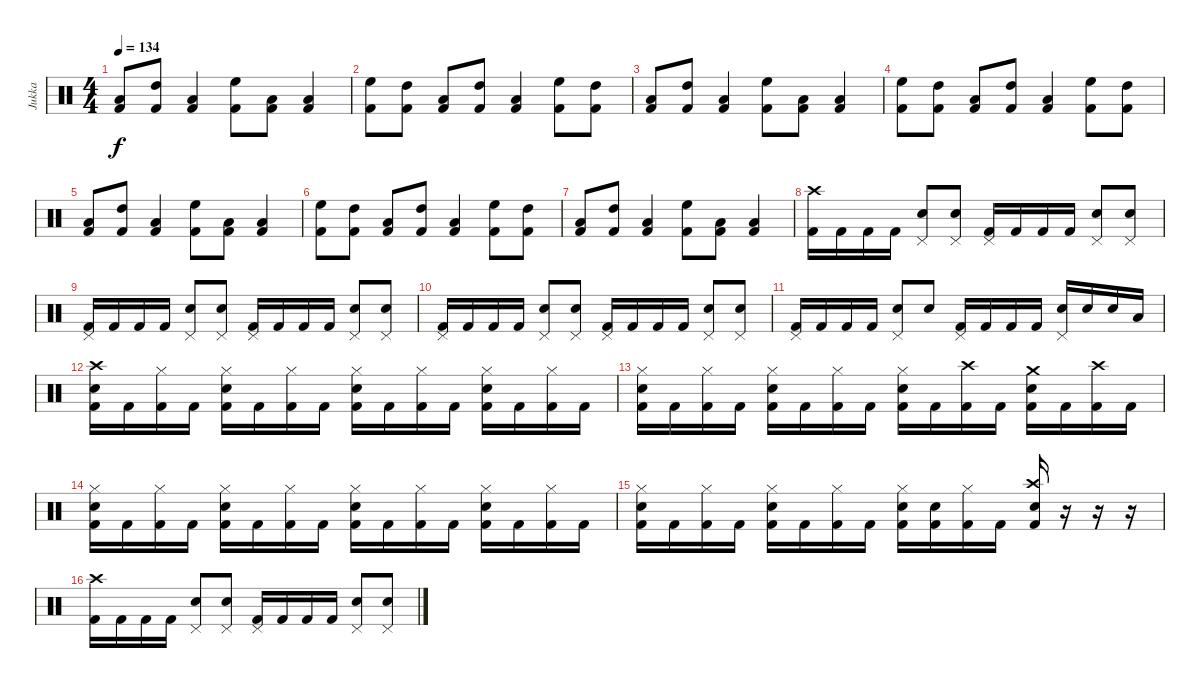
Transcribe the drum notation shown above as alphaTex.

\track ("Jukka" "Jukka") {instrument percussion}
\staff {score}
\articulation defaults
\ts (4 4)
\tempo 134
\clef neutral
\ks c
("Low Tom (hit)" "Kick (hit) 2").8{dy f} ("High Tom (hit)" "Kick (hit) 2").8 ("Low Tom (hit)" "Kick (hit) 2").4 ("High Floor Tom (hit)" "Kick (hit) 2").8 ("Low Tom (hit)" "Kick (hit) 2").8 ("Low Tom (hit)" "Kick (hit) 2").4 |
("High Floor Tom (hit)" "Kick (hit) 2").8 ("High Tom (hit)" "Kick (hit) 2").8 ("Low Tom (hit)" "Kick (hit) 2").8 ("High Tom (hit)" "Kick (hit) 2").8 ("Low Tom (hit)" "Kick (hit) 2").4 ("High Floor Tom (hit)" "Kick (hit) 2").8 ("High Tom (hit)" "Kick (hit) 2").8 |
("Low Tom (hit)" "Kick (hit) 2").8 ("High Tom (hit)" "Kick (hit) 2").8 ("Low Tom (hit)" "Kick (hit) 2").4 ("High Floor Tom (hit)" "Kick (hit) 2").8 ("Low Tom (hit)" "Kick (hit) 2").8 ("Low Tom (hit)" "Kick (hit) 2").4 |
("High Floor Tom (hit)" "Kick (hit) 2").8 ("High Tom (hit)" "Kick (hit) 2").8 ("Low Tom (hit)" "Kick (hit) 2").8 ("High Tom (hit)" "Kick (hit) 2").8 ("Low Tom (hit)" "Kick (hit) 2").4 ("High Floor Tom (hit)" "Kick (hit) 2").8 ("High Tom (hit)" "Kick (hit) 2").8 |
("Low Tom (hit)" "Kick (hit) 2").8 ("High Tom (hit)" "Kick (hit) 2").8 ("Low Tom (hit)" "Kick (hit) 2").4 ("High Floor Tom (hit)" "Kick (hit) 2").8 ("Low Tom (hit)" "Kick (hit) 2").8 ("Low Tom (hit)" "Kick (hit) 2").4 |
("High Floor Tom (hit)" "Kick (hit) 2").8 ("High Tom (hit)" "Kick (hit) 2").8 ("Low Tom (hit)" "Kick (hit) 2").8 ("High Tom (hit)" "Kick (hit) 2").8 ("Low Tom (hit)" "Kick (hit) 2").4 ("High Floor Tom (hit)" "Kick (hit) 2").8 ("High Tom (hit)" "Kick (hit) 2").8 |
("Low Tom (hit)" "Kick (hit) 2").8 ("High Tom (hit)" "Kick (hit) 2").8 ("Low Tom (hit)" "Kick (hit) 2").4 ("High Floor Tom (hit)" "Kick (hit) 2").8 ("Low Tom (hit)" "Kick (hit) 2").8 ("Low Tom (hit)" "Kick (hit) 2").4 |
("Crash high (hit)" "Kick (hit) 2").16 "Kick (hit) 2".16 "Kick (hit) 2".16 "Kick (hit) 2".16 ("Pedal Hi-Hat (hit)" "Electric Snare (hit)").8 ("Pedal Hi-Hat (hit)" "Electric Snare (hit)").8 ("Pedal Hi-Hat (hit)" "Kick (hit) 2").16 "Kick (hit) 2".16 "Kick (hit) 2".16 "Kick (hit) 2".16 ("Pedal Hi-Hat (hit)" "Electric Snare (hit)").8 ("Pedal Hi-Hat (hit)" "Electric Snare (hit)").8 |
("Pedal Hi-Hat (hit)" "Kick (hit) 2").16 "Kick (hit) 2".16 "Kick (hit) 2".16 "Kick (hit) 2".16 ("Pedal Hi-Hat (hit)" "Electric Snare (hit)").8 ("Pedal Hi-Hat (hit)" "Electric Snare (hit)").8 ("Pedal Hi-Hat (hit)" "Kick (hit) 2").16 "Kick (hit) 2".16 "Kick (hit) 2".16 "Kick (hit) 2".16 ("Pedal Hi-Hat (hit)" "Electric Snare (hit)").8 ("Pedal Hi-Hat (hit)" "Electric Snare (hit)").8 |
("Pedal Hi-Hat (hit)" "Kick (hit) 2").16 "Kick (hit) 2".16 "Kick (hit) 2".16 "Kick (hit) 2".16 ("Pedal Hi-Hat (hit)" "Electric Snare (hit)").8 ("Pedal Hi-Hat (hit)" "Electric Snare (hit)").8 ("Pedal Hi-Hat (hit)" "Kick (hit) 2").16 "Kick (hit) 2".16 "Kick (hit) 2".16 "Kick (hit) 2".16 ("Pedal Hi-Hat (hit)" "Electric Snare (hit)").8 ("Pedal Hi-Hat (hit)" "Electric Snare (hit)").8 |
("Pedal Hi-Hat (hit)" "Kick (hit) 2").16 "Kick (hit) 2".16 "Kick (hit) 2".16 "Kick (hit) 2".16 ("Pedal Hi-Hat (hit)" "Electric Snare (hit)").8 "Electric Snare (hit)".8 ("Pedal Hi-Hat (hit)" "Kick (hit) 2").16 "Kick (hit) 2".16 "Kick (hit) 2".16 "Kick (hit) 2".16 ("Pedal Hi-Hat (hit)" "Electric Snare (hit)").16 "Electric Snare (hit)".16 "Electric Snare (hit)".16 "Low Tom (hit)".16 |
("Crash high (hit)" "Electric Snare (hit)" "Kick (hit) 2").16 "Kick (hit) 2".16 ("Hi-Hat (closed)" "Kick (hit) 2").16 "Kick (hit) 2".16 ("Hi-Hat (closed)" "Electric Snare (hit)" "Kick (hit) 2").16 "Kick (hit) 2".16 ("Hi-Hat (closed)" "Kick (hit) 2").16 "Kick (hit) 2".16 ("Hi-Hat (closed)" "Electric Snare (hit)" "Kick (hit) 2").16 "Kick (hit) 2".16 ("Hi-Hat (closed)" "Kick (hit) 2").16 "Kick (hit) 2".16 ("Hi-Hat (closed)" "Electric Snare (hit)" "Kick (hit) 2").16 "Kick (hit) 2".16 ("Hi-Hat (closed)" "Kick (hit) 2").16 "Kick (hit) 2".16 |
("Hi-Hat (closed)" "Electric Snare (hit)" "Kick (hit) 2").16 "Kick (hit) 2".16 ("Hi-Hat (closed)" "Kick (hit) 2").16 "Kick (hit) 2".16 ("Hi-Hat (closed)" "Electric Snare (hit)" "Kick (hit) 2").16 "Kick (hit) 2".16 ("Hi-Hat (closed)" "Kick (hit) 2").16 "Kick (hit) 2".16 ("Hi-Hat (closed)" "Electric Snare (hit)" "Kick (hit) 2").16 "Kick (hit) 2".16 ("Crash high (hit)" "Kick (hit) 2").16 "Kick (hit) 2".16 ("Crash medium (hit)" "Electric Snare (hit)" "Kick (hit) 2").16 "Kick (hit) 2".16 ("Crash high (hit)" "Kick (hit) 2").16 "Kick (hit) 2".16 |
("Hi-Hat (closed)" "Electric Snare (hit)" "Kick (hit) 2").16 "Kick (hit) 2".16 ("Hi-Hat (closed)" "Kick (hit) 2").16 "Kick (hit) 2".16 ("Hi-Hat (closed)" "Electric Snare (hit)" "Kick (hit) 2").16 "Kick (hit) 2".16 ("Hi-Hat (closed)" "Kick (hit) 2").16 "Kick (hit) 2".16 ("Hi-Hat (closed)" "Electric Snare (hit)" "Kick (hit) 2").16 "Kick (hit) 2".16 ("Hi-Hat (closed)" "Kick (hit) 2").16 "Kick (hit) 2".16 ("Hi-Hat (closed)" "Electric Snare (hit)" "Kick (hit) 2").16 "Kick (hit) 2".16 ("Hi-Hat (closed)" "Kick (hit) 2").16 "Kick (hit) 2".16 |
("Hi-Hat (closed)" "Electric Snare (hit)" "Kick (hit) 2").16 "Kick (hit) 2".16 ("Hi-Hat (closed)" "Kick (hit) 2").16 "Kick (hit) 2".16 ("Hi-Hat (closed)" "Electric Snare (hit)" "Kick (hit) 2").16 "Kick (hit) 2".16 ("Hi-Hat (closed)" "Kick (hit) 2").16 "Kick (hit) 2".16 ("Hi-Hat (closed)" "Electric Snare (hit)" "Kick (hit) 2").16 ("Electric Snare (hit)" "Kick (hit) 2").16 ("Hi-Hat (closed)" "Kick (hit) 2").16 "Kick (hit) 2".16 ("Crash high (hit)" "Electric Snare (hit)" "Kick (hit) 2").16 r.16 r.16 r.16 |
("Crash high (hit)" "Kick (hit) 2").16 "Kick (hit) 2".16 "Kick (hit) 2".16 "Kick (hit) 2".16 ("Pedal Hi-Hat (hit)" "Electric Snare (hit)").8 ("Pedal Hi-Hat (hit)" "Electric Snare (hit)").8 ("Pedal Hi-Hat (hit)" "Kick (hit) 2").16 "Kick (hit) 2".16 "Kick (hit) 2".16 "Kick (hit) 2".16 ("Pedal Hi-Hat (hit)" "Electric Snare (hit)").8 ("Pedal Hi-Hat (hit)" "Electric Snare (hit)").8
